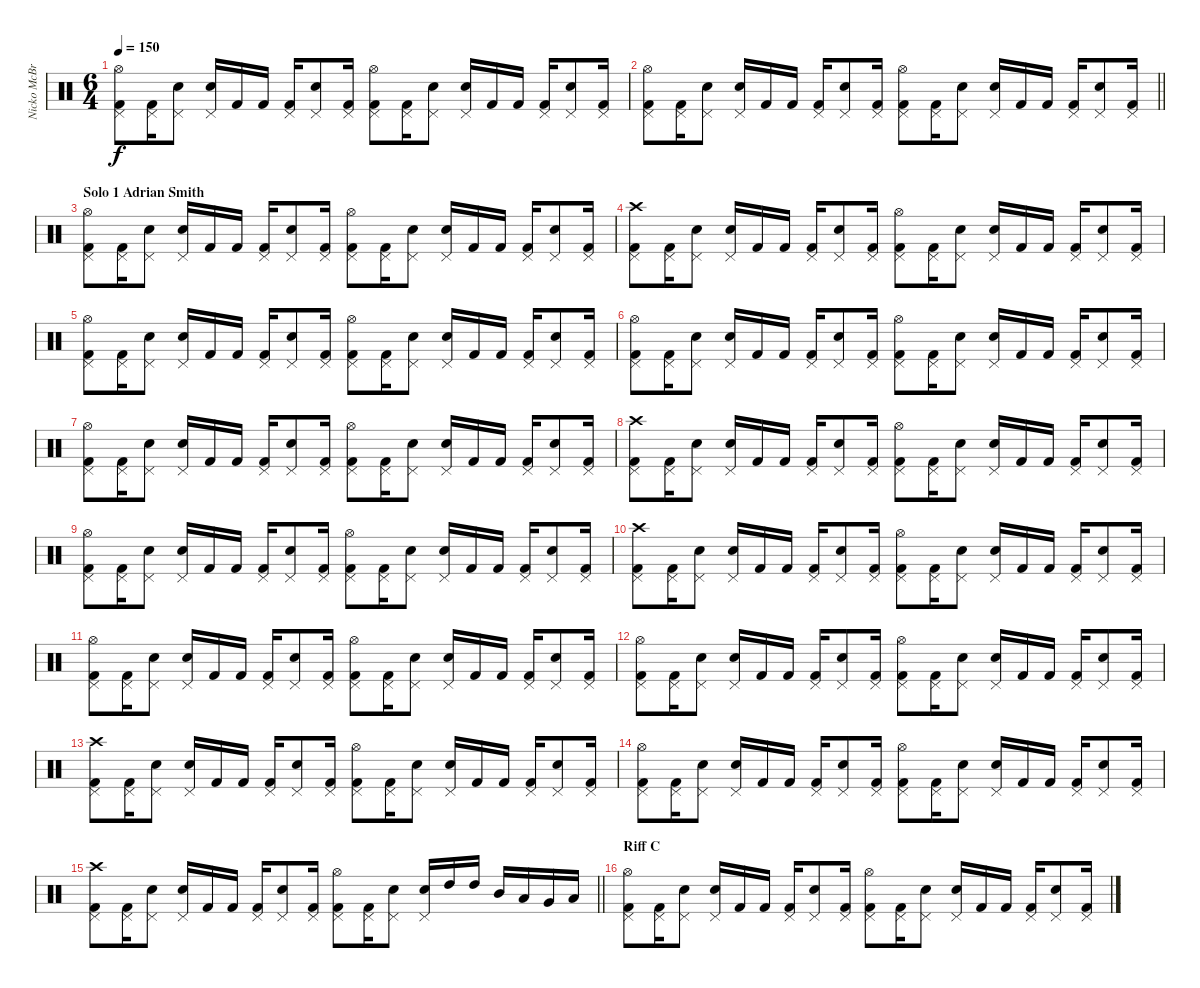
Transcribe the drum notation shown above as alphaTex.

\track ("Nicko McBrain" "Nicko McBr") {instrument percussion}
\staff {score}
\articulation defaults
\ts (6 4)
\tempo 150
\clef neutral
\ks c
("Kick (hit) 2" "Pedal Hi-Hat (hit)" "Hi-Hat (open)").8{dy f} ("Kick (hit) 2" "Pedal Hi-Hat (hit)").16 ("Snare (hit) 2" "Pedal Hi-Hat (hit)").8 ("Snare (hit) 2" "Pedal Hi-Hat (hit)").16 "Kick (hit) 2".16 "Kick (hit) 2".16 ("Kick (hit) 2" "Pedal Hi-Hat (hit)").16 ("Snare (hit) 2" "Pedal Hi-Hat (hit)").8 ("Kick (hit) 2" "Pedal Hi-Hat (hit)").16 ("Kick (hit) 2" "Pedal Hi-Hat (hit)" "Hi-Hat (open)").8 ("Kick (hit) 2" "Pedal Hi-Hat (hit)").16 ("Snare (hit) 2" "Pedal Hi-Hat (hit)").8 ("Snare (hit) 2" "Pedal Hi-Hat (hit)").16 "Kick (hit) 2".16 "Kick (hit) 2".16 ("Kick (hit) 2" "Pedal Hi-Hat (hit)").16 ("Snare (hit) 2" "Pedal Hi-Hat (hit)").8 ("Kick (hit) 2" "Pedal Hi-Hat (hit)").16 |
\barLineRight lightlight
("Kick (hit) 2" "Pedal Hi-Hat (hit)" "Hi-Hat (open)").8 ("Kick (hit) 2" "Pedal Hi-Hat (hit)").16 ("Snare (hit) 2" "Pedal Hi-Hat (hit)").8 ("Snare (hit) 2" "Pedal Hi-Hat (hit)").16 "Kick (hit) 2".16 "Kick (hit) 2".16 ("Kick (hit) 2" "Pedal Hi-Hat (hit)").16 ("Snare (hit) 2" "Pedal Hi-Hat (hit)").8 ("Kick (hit) 2" "Pedal Hi-Hat (hit)").16 ("Kick (hit) 2" "Pedal Hi-Hat (hit)" "Hi-Hat (open)").8 ("Kick (hit) 2" "Pedal Hi-Hat (hit)").16 ("Snare (hit) 2" "Pedal Hi-Hat (hit)").8 ("Snare (hit) 2" "Pedal Hi-Hat (hit)").16 "Kick (hit) 2".16 "Kick (hit) 2".16 ("Kick (hit) 2" "Pedal Hi-Hat (hit)").16 ("Snare (hit) 2" "Pedal Hi-Hat (hit)").8 ("Kick (hit) 2" "Pedal Hi-Hat (hit)").16 |
\section ("" "Solo 1 Adrian Smith")
("Kick (hit) 2" "Pedal Hi-Hat (hit)" "Hi-Hat (open)").8 ("Kick (hit) 2" "Pedal Hi-Hat (hit)").16 ("Snare (hit) 2" "Pedal Hi-Hat (hit)").8 ("Snare (hit) 2" "Pedal Hi-Hat (hit)").16 "Kick (hit) 2".16 "Kick (hit) 2".16 ("Kick (hit) 2" "Pedal Hi-Hat (hit)").16 ("Snare (hit) 2" "Pedal Hi-Hat (hit)").8 ("Kick (hit) 2" "Pedal Hi-Hat (hit)").16 ("Kick (hit) 2" "Pedal Hi-Hat (hit)" "Hi-Hat (open)").8 ("Kick (hit) 2" "Pedal Hi-Hat (hit)").16 ("Snare (hit) 2" "Pedal Hi-Hat (hit)").8 ("Snare (hit) 2" "Pedal Hi-Hat (hit)").16 "Kick (hit) 2".16 "Kick (hit) 2".16 ("Kick (hit) 2" "Pedal Hi-Hat (hit)").16 ("Snare (hit) 2" "Pedal Hi-Hat (hit)").8 ("Kick (hit) 2" "Pedal Hi-Hat (hit)").16 |
("Kick (hit) 2" "Pedal Hi-Hat (hit)" "Crash high (hit)").8 ("Kick (hit) 2" "Pedal Hi-Hat (hit)").16 ("Snare (hit) 2" "Pedal Hi-Hat (hit)").8 ("Snare (hit) 2" "Pedal Hi-Hat (hit)").16 "Kick (hit) 2".16 "Kick (hit) 2".16 ("Kick (hit) 2" "Pedal Hi-Hat (hit)").16 ("Snare (hit) 2" "Pedal Hi-Hat (hit)").8 ("Kick (hit) 2" "Pedal Hi-Hat (hit)").16 ("Kick (hit) 2" "Pedal Hi-Hat (hit)" "Hi-Hat (open)").8 ("Kick (hit) 2" "Pedal Hi-Hat (hit)").16 ("Snare (hit) 2" "Pedal Hi-Hat (hit)").8 ("Snare (hit) 2" "Pedal Hi-Hat (hit)").16 "Kick (hit) 2".16 "Kick (hit) 2".16 ("Kick (hit) 2" "Pedal Hi-Hat (hit)").16 ("Snare (hit) 2" "Pedal Hi-Hat (hit)").8 ("Kick (hit) 2" "Pedal Hi-Hat (hit)").16 |
("Kick (hit) 2" "Pedal Hi-Hat (hit)" "Hi-Hat (open)").8 ("Kick (hit) 2" "Pedal Hi-Hat (hit)").16 ("Snare (hit) 2" "Pedal Hi-Hat (hit)").8 ("Snare (hit) 2" "Pedal Hi-Hat (hit)").16 "Kick (hit) 2".16 "Kick (hit) 2".16 ("Kick (hit) 2" "Pedal Hi-Hat (hit)").16 ("Snare (hit) 2" "Pedal Hi-Hat (hit)").8 ("Kick (hit) 2" "Pedal Hi-Hat (hit)").16 ("Kick (hit) 2" "Pedal Hi-Hat (hit)" "Hi-Hat (open)").8 ("Kick (hit) 2" "Pedal Hi-Hat (hit)").16 ("Snare (hit) 2" "Pedal Hi-Hat (hit)").8 ("Snare (hit) 2" "Pedal Hi-Hat (hit)").16 "Kick (hit) 2".16 "Kick (hit) 2".16 ("Kick (hit) 2" "Pedal Hi-Hat (hit)").16 ("Snare (hit) 2" "Pedal Hi-Hat (hit)").8 ("Kick (hit) 2" "Pedal Hi-Hat (hit)").16 |
("Kick (hit) 2" "Pedal Hi-Hat (hit)" "Hi-Hat (open)").8 ("Kick (hit) 2" "Pedal Hi-Hat (hit)").16 ("Snare (hit) 2" "Pedal Hi-Hat (hit)").8 ("Snare (hit) 2" "Pedal Hi-Hat (hit)").16 "Kick (hit) 2".16 "Kick (hit) 2".16 ("Kick (hit) 2" "Pedal Hi-Hat (hit)").16 ("Snare (hit) 2" "Pedal Hi-Hat (hit)").8 ("Kick (hit) 2" "Pedal Hi-Hat (hit)").16 ("Kick (hit) 2" "Pedal Hi-Hat (hit)" "Hi-Hat (open)").8 ("Kick (hit) 2" "Pedal Hi-Hat (hit)").16 ("Snare (hit) 2" "Pedal Hi-Hat (hit)").8 ("Snare (hit) 2" "Pedal Hi-Hat (hit)").16 "Kick (hit) 2".16 "Kick (hit) 2".16 ("Kick (hit) 2" "Pedal Hi-Hat (hit)").16 ("Snare (hit) 2" "Pedal Hi-Hat (hit)").8 ("Kick (hit) 2" "Pedal Hi-Hat (hit)").16 |
("Kick (hit) 2" "Pedal Hi-Hat (hit)" "Hi-Hat (open)").8 ("Kick (hit) 2" "Pedal Hi-Hat (hit)").16 ("Snare (hit) 2" "Pedal Hi-Hat (hit)").8 ("Snare (hit) 2" "Pedal Hi-Hat (hit)").16 "Kick (hit) 2".16 "Kick (hit) 2".16 ("Kick (hit) 2" "Pedal Hi-Hat (hit)").16 ("Snare (hit) 2" "Pedal Hi-Hat (hit)").8 ("Kick (hit) 2" "Pedal Hi-Hat (hit)").16 ("Kick (hit) 2" "Pedal Hi-Hat (hit)" "Hi-Hat (open)").8 ("Kick (hit) 2" "Pedal Hi-Hat (hit)").16 ("Snare (hit) 2" "Pedal Hi-Hat (hit)").8 ("Snare (hit) 2" "Pedal Hi-Hat (hit)").16 "Kick (hit) 2".16 "Kick (hit) 2".16 ("Kick (hit) 2" "Pedal Hi-Hat (hit)").16 ("Snare (hit) 2" "Pedal Hi-Hat (hit)").8 ("Kick (hit) 2" "Pedal Hi-Hat (hit)").16 |
("Kick (hit) 2" "Pedal Hi-Hat (hit)" "Crash high (hit)").8 ("Kick (hit) 2" "Pedal Hi-Hat (hit)").16 ("Snare (hit) 2" "Pedal Hi-Hat (hit)").8 ("Snare (hit) 2" "Pedal Hi-Hat (hit)").16 "Kick (hit) 2".16 "Kick (hit) 2".16 ("Kick (hit) 2" "Pedal Hi-Hat (hit)").16 ("Snare (hit) 2" "Pedal Hi-Hat (hit)").8 ("Kick (hit) 2" "Pedal Hi-Hat (hit)").16 ("Kick (hit) 2" "Pedal Hi-Hat (hit)" "Hi-Hat (open)").8 ("Kick (hit) 2" "Pedal Hi-Hat (hit)").16 ("Snare (hit) 2" "Pedal Hi-Hat (hit)").8 ("Snare (hit) 2" "Pedal Hi-Hat (hit)").16 "Kick (hit) 2".16 "Kick (hit) 2".16 ("Kick (hit) 2" "Pedal Hi-Hat (hit)").16 ("Snare (hit) 2" "Pedal Hi-Hat (hit)").8 ("Kick (hit) 2" "Pedal Hi-Hat (hit)").16 |
("Kick (hit) 2" "Pedal Hi-Hat (hit)" "Hi-Hat (open)").8 ("Kick (hit) 2" "Pedal Hi-Hat (hit)").16 ("Snare (hit) 2" "Pedal Hi-Hat (hit)").8 ("Snare (hit) 2" "Pedal Hi-Hat (hit)").16 "Kick (hit) 2".16 "Kick (hit) 2".16 ("Kick (hit) 2" "Pedal Hi-Hat (hit)").16 ("Snare (hit) 2" "Pedal Hi-Hat (hit)").8 ("Kick (hit) 2" "Pedal Hi-Hat (hit)").16 ("Kick (hit) 2" "Pedal Hi-Hat (hit)" "Hi-Hat (open)").8 ("Kick (hit) 2" "Pedal Hi-Hat (hit)").16 ("Snare (hit) 2" "Pedal Hi-Hat (hit)").8 ("Snare (hit) 2" "Pedal Hi-Hat (hit)").16 "Kick (hit) 2".16 "Kick (hit) 2".16 ("Kick (hit) 2" "Pedal Hi-Hat (hit)").16 ("Snare (hit) 2" "Pedal Hi-Hat (hit)").8 ("Kick (hit) 2" "Pedal Hi-Hat (hit)").16 |
("Kick (hit) 2" "Pedal Hi-Hat (hit)" "Crash high (hit)").8 ("Kick (hit) 2" "Pedal Hi-Hat (hit)").16 ("Snare (hit) 2" "Pedal Hi-Hat (hit)").8 ("Snare (hit) 2" "Pedal Hi-Hat (hit)").16 "Kick (hit) 2".16 "Kick (hit) 2".16 ("Kick (hit) 2" "Pedal Hi-Hat (hit)").16 ("Snare (hit) 2" "Pedal Hi-Hat (hit)").8 ("Kick (hit) 2" "Pedal Hi-Hat (hit)").16 ("Kick (hit) 2" "Pedal Hi-Hat (hit)" "Hi-Hat (open)").8 ("Kick (hit) 2" "Pedal Hi-Hat (hit)").16 ("Snare (hit) 2" "Pedal Hi-Hat (hit)").8 ("Snare (hit) 2" "Pedal Hi-Hat (hit)").16 "Kick (hit) 2".16 "Kick (hit) 2".16 ("Kick (hit) 2" "Pedal Hi-Hat (hit)").16 ("Snare (hit) 2" "Pedal Hi-Hat (hit)").8 ("Kick (hit) 2" "Pedal Hi-Hat (hit)").16 |
("Kick (hit) 2" "Pedal Hi-Hat (hit)" "Hi-Hat (open)").8 ("Kick (hit) 2" "Pedal Hi-Hat (hit)").16 ("Snare (hit) 2" "Pedal Hi-Hat (hit)").8 ("Snare (hit) 2" "Pedal Hi-Hat (hit)").16 "Kick (hit) 2".16 "Kick (hit) 2".16 ("Kick (hit) 2" "Pedal Hi-Hat (hit)").16 ("Snare (hit) 2" "Pedal Hi-Hat (hit)").8 ("Kick (hit) 2" "Pedal Hi-Hat (hit)").16 ("Kick (hit) 2" "Pedal Hi-Hat (hit)" "Hi-Hat (open)").8 ("Kick (hit) 2" "Pedal Hi-Hat (hit)").16 ("Snare (hit) 2" "Pedal Hi-Hat (hit)").8 ("Snare (hit) 2" "Pedal Hi-Hat (hit)").16 "Kick (hit) 2".16 "Kick (hit) 2".16 ("Kick (hit) 2" "Pedal Hi-Hat (hit)").16 ("Snare (hit) 2" "Pedal Hi-Hat (hit)").8 ("Kick (hit) 2" "Pedal Hi-Hat (hit)").16 |
("Kick (hit) 2" "Pedal Hi-Hat (hit)" "Hi-Hat (open)").8 ("Kick (hit) 2" "Pedal Hi-Hat (hit)").16 ("Snare (hit) 2" "Pedal Hi-Hat (hit)").8 ("Snare (hit) 2" "Pedal Hi-Hat (hit)").16 "Kick (hit) 2".16 "Kick (hit) 2".16 ("Kick (hit) 2" "Pedal Hi-Hat (hit)").16 ("Snare (hit) 2" "Pedal Hi-Hat (hit)").8 ("Kick (hit) 2" "Pedal Hi-Hat (hit)").16 ("Kick (hit) 2" "Pedal Hi-Hat (hit)" "Hi-Hat (open)").8 ("Kick (hit) 2" "Pedal Hi-Hat (hit)").16 ("Snare (hit) 2" "Pedal Hi-Hat (hit)").8 ("Snare (hit) 2" "Pedal Hi-Hat (hit)").16 "Kick (hit) 2".16 "Kick (hit) 2".16 ("Kick (hit) 2" "Pedal Hi-Hat (hit)").16 ("Snare (hit) 2" "Pedal Hi-Hat (hit)").8 ("Kick (hit) 2" "Pedal Hi-Hat (hit)").16 |
("Kick (hit) 2" "Pedal Hi-Hat (hit)" "Crash high (hit)").8 ("Kick (hit) 2" "Pedal Hi-Hat (hit)").16 ("Snare (hit) 2" "Pedal Hi-Hat (hit)").8 ("Snare (hit) 2" "Pedal Hi-Hat (hit)").16 "Kick (hit) 2".16 "Kick (hit) 2".16 ("Kick (hit) 2" "Pedal Hi-Hat (hit)").16 ("Snare (hit) 2" "Pedal Hi-Hat (hit)").8 ("Kick (hit) 2" "Pedal Hi-Hat (hit)").16 ("Kick (hit) 2" "Pedal Hi-Hat (hit)" "Hi-Hat (open)").8 ("Kick (hit) 2" "Pedal Hi-Hat (hit)").16 ("Snare (hit) 2" "Pedal Hi-Hat (hit)").8 ("Snare (hit) 2" "Pedal Hi-Hat (hit)").16 "Kick (hit) 2".16 "Kick (hit) 2".16 ("Kick (hit) 2" "Pedal Hi-Hat (hit)").16 ("Snare (hit) 2" "Pedal Hi-Hat (hit)").8 ("Kick (hit) 2" "Pedal Hi-Hat (hit)").16 |
("Kick (hit) 2" "Pedal Hi-Hat (hit)" "Hi-Hat (open)").8 ("Kick (hit) 2" "Pedal Hi-Hat (hit)").16 ("Snare (hit) 2" "Pedal Hi-Hat (hit)").8 ("Snare (hit) 2" "Pedal Hi-Hat (hit)").16 "Kick (hit) 2".16 "Kick (hit) 2".16 ("Kick (hit) 2" "Pedal Hi-Hat (hit)").16 ("Snare (hit) 2" "Pedal Hi-Hat (hit)").8 ("Kick (hit) 2" "Pedal Hi-Hat (hit)").16 ("Kick (hit) 2" "Pedal Hi-Hat (hit)" "Hi-Hat (open)").8 ("Kick (hit) 2" "Pedal Hi-Hat (hit)").16 ("Snare (hit) 2" "Pedal Hi-Hat (hit)").8 ("Snare (hit) 2" "Pedal Hi-Hat (hit)").16 "Kick (hit) 2".16 "Kick (hit) 2".16 ("Kick (hit) 2" "Pedal Hi-Hat (hit)").16 ("Snare (hit) 2" "Pedal Hi-Hat (hit)").8 ("Kick (hit) 2" "Pedal Hi-Hat (hit)").16 |
\barLineRight lightlight
("Kick (hit) 2" "Pedal Hi-Hat (hit)" "Crash high (hit)").8 ("Kick (hit) 2" "Pedal Hi-Hat (hit)").16 ("Snare (hit) 2" "Pedal Hi-Hat (hit)").8 ("Snare (hit) 2" "Pedal Hi-Hat (hit)").16 "Kick (hit) 2".16 "Kick (hit) 2".16 ("Kick (hit) 2" "Pedal Hi-Hat (hit)").16 ("Snare (hit) 2" "Pedal Hi-Hat (hit)").8 ("Kick (hit) 2" "Pedal Hi-Hat (hit)").16 ("Kick (hit) 2" "Pedal Hi-Hat (hit)" "Hi-Hat (open)").8 ("Kick (hit) 2" "Pedal Hi-Hat (hit)").16 ("Snare (hit) 2" "Pedal Hi-Hat (hit)").8 ("Snare (hit) 2" "Pedal Hi-Hat (hit)").16 "High Tom (hit)".16 "High Tom (hit)".16 "Mid Tom (hit)".16 "Low Tom (hit)".16 "Very Low Tom (hit)".16 "Low Floor Tom (hit)".16 |
\section ("" "Riff C")
("Kick (hit) 2" "Pedal Hi-Hat (hit)" "Hi-Hat (open)").8 ("Kick (hit) 2" "Pedal Hi-Hat (hit)").16 ("Snare (hit) 2" "Pedal Hi-Hat (hit)").8 ("Snare (hit) 2" "Pedal Hi-Hat (hit)").16 "Kick (hit) 2".16 "Kick (hit) 2".16 ("Kick (hit) 2" "Pedal Hi-Hat (hit)").16 ("Snare (hit) 2" "Pedal Hi-Hat (hit)").8 ("Kick (hit) 2" "Pedal Hi-Hat (hit)").16 ("Kick (hit) 2" "Pedal Hi-Hat (hit)" "Hi-Hat (open)").8 ("Kick (hit) 2" "Pedal Hi-Hat (hit)").16 ("Snare (hit) 2" "Pedal Hi-Hat (hit)").8 ("Snare (hit) 2" "Pedal Hi-Hat (hit)").16 "Kick (hit) 2".16 "Kick (hit) 2".16 ("Kick (hit) 2" "Pedal Hi-Hat (hit)").16 ("Snare (hit) 2" "Pedal Hi-Hat (hit)").8 ("Kick (hit) 2" "Pedal Hi-Hat (hit)").16
